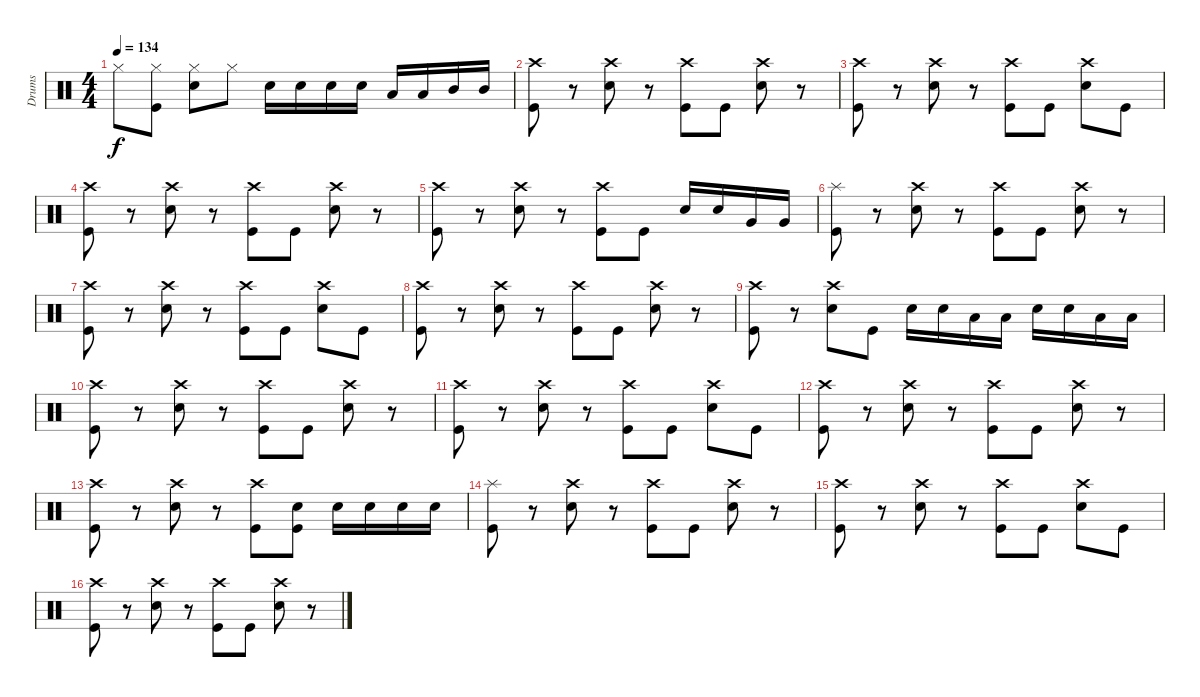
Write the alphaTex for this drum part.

\track ("Drums" "Drums") {instrument percussion}
\staff {score}
\articulation defaults
\ts (4 4)
\tempo 134
\clef neutral
\ks c "Hi-Hat (closed)".8{dy f}
("Hi-Hat (closed)" "Kick (hit)").8 ("Snare (hit) 2" "Hi-Hat (closed)").8 "Hi-Hat (closed)".8 "Snare (hit) 2".16 "Snare (hit) 2".16 "Snare (hit) 2".16 "Snare (hit) 2".16 "Low Tom (hit)".16 "Low Tom (hit)".16 "Mid Tom (hit)".16 "Mid Tom (hit)".16 |
("Kick (hit)" "Crash high (hit)").8 r.8 ("Crash high (hit)" "Snare (hit) 2").8 r.8 ("Crash high (hit)" "Kick (hit)").8 "Kick (hit)".8 ("Crash high (hit)" "Snare (hit) 2").8 r.8 |
("Crash high (hit)" "Kick (hit)").8 r.8 ("Crash high (hit)" "Snare (hit) 2").8 r.8 ("Crash high (hit)" "Kick (hit)").8 "Kick (hit)".8 ("Crash high (hit)" "Snare (hit) 2").8 "Kick (hit)".8 |
("Crash high (hit)" "Kick (hit)").8 r.8 ("Crash high (hit)" "Snare (hit) 2").8 r.8 ("Crash high (hit)" "Kick (hit)").8 "Kick (hit)".8 ("Crash high (hit)" "Snare (hit) 2").8 r.8 |
("Crash high (hit)" "Kick (hit)").8 r.8 ("Crash high (hit)" "Snare (hit) 2").8 r.8 ("Crash high (hit)" "Kick (hit)").8 "Kick (hit)".8 "Snare (hit) 2".16 "Snare (hit) 2".16 "Very Low Tom (hit)".16 "Very Low Tom (hit)".16 |
("Kick (hit)" "Splash (hit)").8 r.8 ("Crash high (hit)" "Snare (hit) 2").8 r.8 ("Crash high (hit)" "Kick (hit)").8 "Kick (hit)".8 ("Crash high (hit)" "Snare (hit) 2").8 r.8 |
("Crash high (hit)" "Kick (hit)").8 r.8 ("Crash high (hit)" "Snare (hit) 2").8 r.8 ("Crash high (hit)" "Kick (hit)").8 "Kick (hit)".8 ("Crash high (hit)" "Snare (hit) 2").8 "Kick (hit)".8 |
("Crash high (hit)" "Kick (hit)").8 r.8 ("Crash high (hit)" "Snare (hit) 2").8 r.8 ("Crash high (hit)" "Kick (hit)").8 "Kick (hit)".8 ("Crash high (hit)" "Snare (hit) 2").8 r.8 |
("Crash high (hit)" "Kick (hit)").8 r.8 ("Crash high (hit)" "Snare (hit) 2").8 "Kick (hit)".8 "Snare (hit) 2".16 "Snare (hit) 2".16 "Low Tom (hit)".16 "Low Tom (hit)".16 "Snare (hit) 2".16 "Snare (hit) 2".16 "Low Tom (hit)".16 "Low Tom (hit)".16 |
("Crash high (hit)" "Kick (hit)").8 r.8 ("Snare (hit) 2" "Crash high (hit)").8 r.8 ("Kick (hit)" "Crash high (hit)").8 "Kick (hit)".8 ("Snare (hit) 2" "Crash high (hit)").8 r.8 |
("Kick (hit)" "Crash high (hit)").8 r.8 ("Snare (hit) 2" "Crash high (hit)").8 r.8 ("Kick (hit)" "Crash high (hit)").8 "Kick (hit)".8 ("Snare (hit) 2" "Crash high (hit)").8 "Kick (hit)".8 |
("Kick (hit)" "Crash high (hit)").8 r.8 ("Snare (hit) 2" "Crash high (hit)").8 r.8 ("Kick (hit)" "Crash high (hit)").8 "Kick (hit)".8 ("Snare (hit) 2" "Crash high (hit)").8 r.8 |
("Kick (hit)" "Crash high (hit)").8 r.8 ("Snare (hit) 2" "Crash high (hit)").8 r.8 ("Kick (hit)" "Crash high (hit)").8 ("Kick (hit)" "Snare (hit) 2").8 "Snare (hit) 2".16 "Snare (hit) 2".16 "Snare (hit) 2".16 "Snare (hit) 2".16 |
("Splash (hit)" "Kick (hit)").8 r.8 ("Snare (hit) 2" "Crash high (hit)").8 r.8 ("Kick (hit)" "Crash high (hit)").8 "Kick (hit)".8 ("Snare (hit) 2" "Crash high (hit)").8 r.8 |
("Kick (hit)" "Crash high (hit)").8 r.8 ("Snare (hit) 2" "Crash high (hit)").8 r.8 ("Kick (hit)" "Crash high (hit)").8 "Kick (hit)".8 ("Snare (hit) 2" "Crash high (hit)").8 "Kick (hit)".8 |
("Kick (hit)" "Crash high (hit)").8 r.8 ("Snare (hit) 2" "Crash high (hit)").8 r.8 ("Kick (hit)" "Crash high (hit)").8 "Kick (hit)".8 ("Snare (hit) 2" "Crash high (hit)").8 r.8
